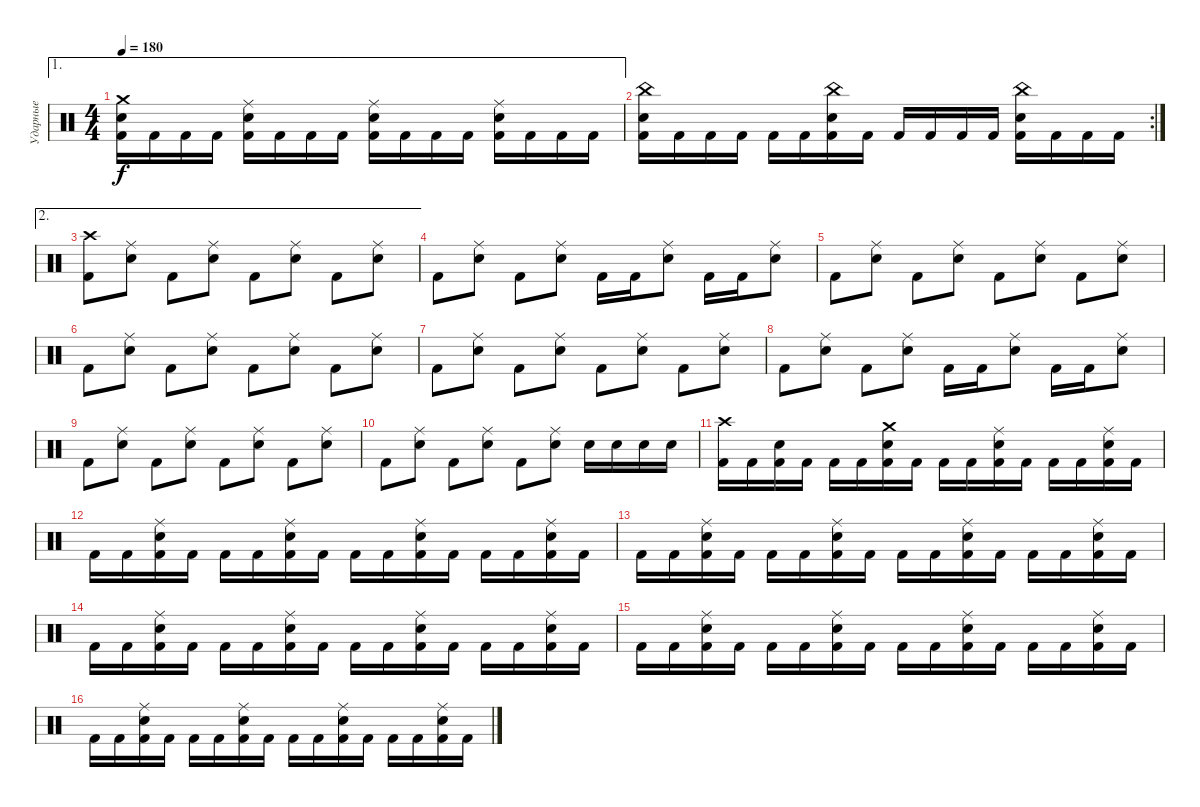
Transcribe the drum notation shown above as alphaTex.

\track ("Ударные" "Ударные") {instrument percussion}
\staff {score}
\articulation defaults
\ae 1
\ts (4 4)
\tempo 180
\clef neutral
\ks c
("Kick (hit) 2" "Electric Snare (hit)" "Crash medium (hit)").16{dy f} "Kick (hit) 2".16 "Kick (hit) 2".16 "Kick (hit) 2".16 ("Kick (hit) 2" "Electric Snare (hit)" "Ride (middle)").16 "Kick (hit) 2".16 "Kick (hit) 2".16 "Kick (hit) 2".16 ("Kick (hit) 2" "Electric Snare (hit)" "Ride (middle)").16 "Kick (hit) 2".16 "Kick (hit) 2".16 "Kick (hit) 2".16 ("Kick (hit) 2" "Electric Snare (hit)" "Ride (middle)").16 "Kick (hit) 2".16 "Kick (hit) 2".16 "Kick (hit) 2".16 |
\rc 2
("Kick (hit) 2" "Electric Snare (hit)" "China (hit)").16 "Kick (hit) 2".16 "Kick (hit) 2".16 "Kick (hit) 2".16 "Kick (hit) 2".16 "Kick (hit) 2".16 ("Kick (hit) 2" "Electric Snare (hit)" "China (hit)").16 "Kick (hit) 2".16 "Kick (hit) 2".16 "Kick (hit) 2".16 "Kick (hit) 2".16 "Kick (hit) 2".16 ("Kick (hit) 2" "Electric Snare (hit)" "China (hit)").16 "Kick (hit) 2".16 "Kick (hit) 2".16 "Kick (hit) 2".16 |
\ae 2
("Kick (hit) 2" "Crash high (hit)").8 ("Electric Snare (hit)" "Ride (middle)").8 "Kick (hit) 2".8 ("Electric Snare (hit)" "Ride (middle)").8 "Kick (hit) 2".8 ("Electric Snare (hit)" "Ride (middle)").8 "Kick (hit) 2".8 ("Electric Snare (hit)" "Ride (middle)").8 |
"Kick (hit) 2".8 ("Electric Snare (hit)" "Ride (middle)").8 "Kick (hit) 2".8 ("Electric Snare (hit)" "Ride (middle)").8 "Kick (hit) 2".16 "Kick (hit) 2".16 ("Electric Snare (hit)" "Ride (middle)").8 "Kick (hit) 2".16 "Kick (hit) 2".16 ("Electric Snare (hit)" "Ride (middle)").8 |
"Kick (hit) 2".8 ("Electric Snare (hit)" "Ride (middle)").8 "Kick (hit) 2".8 ("Electric Snare (hit)" "Ride (middle)").8 "Kick (hit) 2".8 ("Electric Snare (hit)" "Ride (middle)").8 "Kick (hit) 2".8 ("Electric Snare (hit)" "Ride (middle)").8 |
"Kick (hit) 2".8 ("Electric Snare (hit)" "Ride (middle)").8 "Kick (hit) 2".8 ("Electric Snare (hit)" "Ride (middle)").8 "Kick (hit) 2".8 ("Electric Snare (hit)" "Ride (middle)").8 "Kick (hit) 2".8 ("Electric Snare (hit)" "Ride (middle)").8 |
"Kick (hit) 2".8 ("Electric Snare (hit)" "Ride (middle)").8 "Kick (hit) 2".8 ("Electric Snare (hit)" "Ride (middle)").8 "Kick (hit) 2".8 ("Electric Snare (hit)" "Ride (middle)").8 "Kick (hit) 2".8 ("Electric Snare (hit)" "Ride (middle)").8 |
"Kick (hit) 2".8 ("Electric Snare (hit)" "Ride (middle)").8 "Kick (hit) 2".8 ("Electric Snare (hit)" "Ride (middle)").8 "Kick (hit) 2".16 "Kick (hit) 2".16 ("Electric Snare (hit)" "Ride (middle)").8 "Kick (hit) 2".16 "Kick (hit) 2".16 ("Electric Snare (hit)" "Ride (middle)").8 |
"Kick (hit) 2".8 ("Electric Snare (hit)" "Ride (middle)").8 "Kick (hit) 2".8 ("Electric Snare (hit)" "Ride (middle)").8 "Kick (hit) 2".8 ("Electric Snare (hit)" "Ride (middle)").8 "Kick (hit) 2".8 ("Electric Snare (hit)" "Ride (middle)").8 |
"Kick (hit) 2".8 ("Electric Snare (hit)" "Ride (middle)").8 "Kick (hit) 2".8 ("Electric Snare (hit)" "Ride (middle)").8 "Kick (hit) 2".8 ("Electric Snare (hit)" "Ride (middle)").8 "Electric Snare (hit)".16 "Electric Snare (hit)".16 "Electric Snare (hit)".16 "Electric Snare (hit)".16 |
("Kick (hit) 2" "Crash high (hit)").16 "Kick (hit) 2".16 ("Kick (hit) 2" "Electric Snare (hit)").16 "Kick (hit) 2".16 "Kick (hit) 2".16 "Kick (hit) 2".16 ("Kick (hit) 2" "Electric Snare (hit)" "Crash medium (hit)").16 "Kick (hit) 2".16 "Kick (hit) 2".16 "Kick (hit) 2".16 ("Kick (hit) 2" "Electric Snare (hit)" "Ride (middle)").16 "Kick (hit) 2".16 "Kick (hit) 2".16 "Kick (hit) 2".16 ("Kick (hit) 2" "Electric Snare (hit)" "Ride (middle)").16 "Kick (hit) 2".16 |
"Kick (hit) 2".16 "Kick (hit) 2".16 ("Kick (hit) 2" "Electric Snare (hit)" "Ride (middle)").16 "Kick (hit) 2".16 "Kick (hit) 2".16 "Kick (hit) 2".16 ("Kick (hit) 2" "Electric Snare (hit)" "Ride (middle)").16 "Kick (hit) 2".16 "Kick (hit) 2".16 "Kick (hit) 2".16 ("Kick (hit) 2" "Electric Snare (hit)" "Ride (middle)").16 "Kick (hit) 2".16 "Kick (hit) 2".16 "Kick (hit) 2".16 ("Kick (hit) 2" "Electric Snare (hit)" "Ride (middle)").16 "Kick (hit) 2".16 |
"Kick (hit) 2".16 "Kick (hit) 2".16 ("Kick (hit) 2" "Electric Snare (hit)" "Ride (middle)").16 "Kick (hit) 2".16 "Kick (hit) 2".16 "Kick (hit) 2".16 ("Kick (hit) 2" "Electric Snare (hit)" "Ride (middle)").16 "Kick (hit) 2".16 "Kick (hit) 2".16 "Kick (hit) 2".16 ("Kick (hit) 2" "Electric Snare (hit)" "Ride (middle)").16 "Kick (hit) 2".16 "Kick (hit) 2".16 "Kick (hit) 2".16 ("Kick (hit) 2" "Electric Snare (hit)" "Ride (middle)").16 "Kick (hit) 2".16 |
"Kick (hit) 2".16 "Kick (hit) 2".16 ("Kick (hit) 2" "Electric Snare (hit)" "Ride (middle)").16 "Kick (hit) 2".16 "Kick (hit) 2".16 "Kick (hit) 2".16 ("Kick (hit) 2" "Electric Snare (hit)" "Ride (middle)").16 "Kick (hit) 2".16 "Kick (hit) 2".16 "Kick (hit) 2".16 ("Kick (hit) 2" "Electric Snare (hit)" "Ride (middle)").16 "Kick (hit) 2".16 "Kick (hit) 2".16 "Kick (hit) 2".16 ("Kick (hit) 2" "Electric Snare (hit)" "Ride (middle)").16 "Kick (hit) 2".16 |
"Kick (hit) 2".16 "Kick (hit) 2".16 ("Kick (hit) 2" "Electric Snare (hit)" "Ride (middle)").16 "Kick (hit) 2".16 "Kick (hit) 2".16 "Kick (hit) 2".16 ("Kick (hit) 2" "Electric Snare (hit)" "Ride (middle)").16 "Kick (hit) 2".16 "Kick (hit) 2".16 "Kick (hit) 2".16 ("Kick (hit) 2" "Electric Snare (hit)" "Ride (middle)").16 "Kick (hit) 2".16 "Kick (hit) 2".16 "Kick (hit) 2".16 ("Kick (hit) 2" "Electric Snare (hit)" "Ride (middle)").16 "Kick (hit) 2".16 |
"Kick (hit) 2".16 "Kick (hit) 2".16 ("Kick (hit) 2" "Electric Snare (hit)" "Ride (middle)").16 "Kick (hit) 2".16 "Kick (hit) 2".16 "Kick (hit) 2".16 ("Kick (hit) 2" "Electric Snare (hit)" "Ride (middle)").16 "Kick (hit) 2".16 "Kick (hit) 2".16 "Kick (hit) 2".16 ("Kick (hit) 2" "Electric Snare (hit)" "Ride (middle)").16 "Kick (hit) 2".16 "Kick (hit) 2".16 "Kick (hit) 2".16 ("Kick (hit) 2" "Electric Snare (hit)" "Ride (middle)").16 "Kick (hit) 2".16
